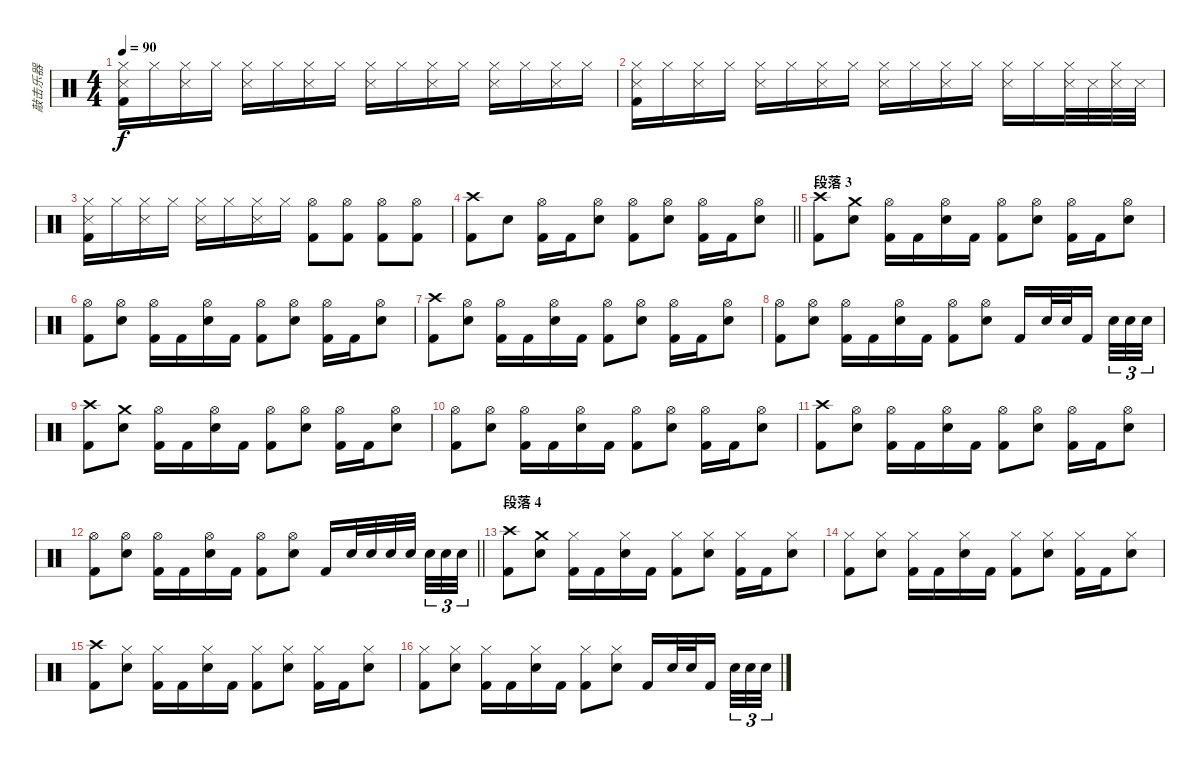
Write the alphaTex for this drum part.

\track ("敲击乐器" "敲击乐器") {instrument percussion}
\staff {score}
\articulation defaults
\ts (4 4)
\tempo 90
\clef neutral
\ks c
("Hi-Hat (closed)" "Snare (side stick) 3" "Kick (hit) 2").16{dy f} "Hi-Hat (closed)".16 ("Hi-Hat (closed)" "Snare (side stick) 3").16 "Hi-Hat (closed)".16 ("Hi-Hat (closed)" "Snare (side stick) 3").16 "Hi-Hat (closed)".16 ("Hi-Hat (closed)" "Snare (side stick) 3").16 "Hi-Hat (closed)".16 ("Hi-Hat (closed)" "Snare (side stick) 3").16 "Hi-Hat (closed)".16 ("Hi-Hat (closed)" "Snare (side stick) 3").16 "Hi-Hat (closed)".16 ("Hi-Hat (closed)" "Snare (side stick) 3").16 "Hi-Hat (closed)".16 ("Hi-Hat (closed)" "Snare (side stick) 3").16 "Hi-Hat (closed)".16 |
("Hi-Hat (closed)" "Snare (side stick) 3" "Kick (hit) 2").16 "Hi-Hat (closed)".16 ("Hi-Hat (closed)" "Snare (side stick) 3").16 "Hi-Hat (closed)".16 ("Hi-Hat (closed)" "Snare (side stick) 3").16 "Hi-Hat (closed)".16 ("Hi-Hat (closed)" "Snare (side stick) 3").16 "Hi-Hat (closed)".16 ("Hi-Hat (closed)" "Snare (side stick) 3").16 "Hi-Hat (closed)".16 ("Hi-Hat (closed)" "Snare (side stick) 3").16 "Hi-Hat (closed)".16 ("Hi-Hat (closed)" "Snare (side stick) 3").16 "Hi-Hat (closed)".16 ("Hi-Hat (closed)" "Snare (side stick) 3").32 "Snare (side stick) 3".32 ("Hi-Hat (closed)" "Snare (side stick) 3").32 "Snare (side stick) 3".32 |
("Hi-Hat (closed)" "Snare (side stick) 3" "Kick (hit) 2").16 "Hi-Hat (closed)".16 ("Hi-Hat (closed)" "Snare (side stick) 3").16 "Hi-Hat (closed)".16 ("Hi-Hat (closed)" "Snare (side stick) 3").16 "Hi-Hat (closed)".16 ("Hi-Hat (closed)" "Snare (side stick) 3").16 "Hi-Hat (closed)".16 ("Hi-Hat (open)" "Kick (hit) 2").8 ("Hi-Hat (open)" "Kick (hit) 2").8 ("Hi-Hat (open)" "Kick (hit) 2").8 ("Hi-Hat (open)" "Kick (hit) 2").8 |
\barLineRight lightlight
("Crash high (hit)" "Kick (hit) 2").8 "Snare (hit) 2".8 ("Hi-Hat (open)" "Kick (hit) 2").16 "Kick (hit) 2".16 ("Hi-Hat (open)" "Snare (hit) 2").8 ("Hi-Hat (open)" "Kick (hit) 2").8 ("Hi-Hat (open)" "Snare (hit) 2").8 ("Hi-Hat (open)" "Kick (hit) 2").16 "Kick (hit) 2".16 ("Hi-Hat (open)" "Snare (hit) 2").8 |
\section ("" "段落 3")
("Crash high (hit)" "Kick (hit) 2").8 ("Crash medium (hit)" "Snare (hit) 2").8 ("Hi-Hat (open)" "Kick (hit) 2").16 "Kick (hit) 2".16 ("Hi-Hat (open)" "Snare (hit) 2").16 "Kick (hit) 2".16 ("Hi-Hat (open)" "Kick (hit) 2").8 ("Hi-Hat (open)" "Snare (hit) 2").8 ("Hi-Hat (open)" "Kick (hit) 2").16 "Kick (hit) 2".16 ("Hi-Hat (open)" "Snare (hit) 2").8 |
("Hi-Hat (open)" "Kick (hit) 2").8 ("Hi-Hat (open)" "Snare (hit) 2").8 ("Hi-Hat (open)" "Kick (hit) 2").16 "Kick (hit) 2".16 ("Hi-Hat (open)" "Snare (hit) 2").16 "Kick (hit) 2".16 ("Hi-Hat (open)" "Kick (hit) 2").8 ("Hi-Hat (open)" "Snare (hit) 2").8 ("Hi-Hat (open)" "Kick (hit) 2").16 "Kick (hit) 2".16 ("Hi-Hat (open)" "Snare (hit) 2").8 |
("Crash high (hit)" "Kick (hit) 2").8 ("Hi-Hat (open)" "Snare (hit) 2").8 ("Hi-Hat (open)" "Kick (hit) 2").16 "Kick (hit) 2".16 ("Hi-Hat (open)" "Snare (hit) 2").16 "Kick (hit) 2".16 ("Hi-Hat (open)" "Kick (hit) 2").8 ("Hi-Hat (open)" "Snare (hit) 2").8 ("Hi-Hat (open)" "Kick (hit) 2").16 "Kick (hit) 2".16 ("Hi-Hat (open)" "Snare (hit) 2").8 |
("Hi-Hat (open)" "Kick (hit) 2").8 ("Hi-Hat (open)" "Snare (hit) 2").8 ("Hi-Hat (open)" "Kick (hit) 2").16 "Kick (hit) 2".16 ("Hi-Hat (open)" "Snare (hit) 2").16 "Kick (hit) 2".16 ("Hi-Hat (open)" "Kick (hit) 2").8 ("Hi-Hat (open)" "Snare (hit) 2").8 "Kick (hit) 2".16 "Snare (hit) 2".32 "Snare (hit) 2".32 "Kick (hit) 2".16{beam splitsecondary} "Snare (hit) 2".32{tu (3 2)} "Snare (hit) 2".32{tu (3 2)} "Snare (hit) 2".32{tu (3 2)} |
("Crash high (hit)" "Kick (hit) 2").8 ("Crash medium (hit)" "Snare (hit) 2").8 ("Hi-Hat (open)" "Kick (hit) 2").16 "Kick (hit) 2".16 ("Hi-Hat (open)" "Snare (hit) 2").16 "Kick (hit) 2".16 ("Hi-Hat (open)" "Kick (hit) 2").8 ("Hi-Hat (open)" "Snare (hit) 2").8 ("Hi-Hat (open)" "Kick (hit) 2").16 "Kick (hit) 2".16 ("Hi-Hat (open)" "Snare (hit) 2").8 |
("Hi-Hat (open)" "Kick (hit) 2").8 ("Hi-Hat (open)" "Snare (hit) 2").8 ("Hi-Hat (open)" "Kick (hit) 2").16 "Kick (hit) 2".16 ("Hi-Hat (open)" "Snare (hit) 2").16 "Kick (hit) 2".16 ("Hi-Hat (open)" "Kick (hit) 2").8 ("Hi-Hat (open)" "Snare (hit) 2").8 ("Hi-Hat (open)" "Kick (hit) 2").16 "Kick (hit) 2".16 ("Hi-Hat (open)" "Snare (hit) 2").8 |
("Crash high (hit)" "Kick (hit) 2").8 ("Hi-Hat (open)" "Snare (hit) 2").8 ("Hi-Hat (open)" "Kick (hit) 2").16 "Kick (hit) 2".16 ("Hi-Hat (open)" "Snare (hit) 2").16 "Kick (hit) 2".16 ("Hi-Hat (open)" "Kick (hit) 2").8 ("Hi-Hat (open)" "Snare (hit) 2").8 ("Hi-Hat (open)" "Kick (hit) 2").16 "Kick (hit) 2".16 ("Hi-Hat (open)" "Snare (hit) 2").8 |
\barLineRight lightlight
("Hi-Hat (open)" "Kick (hit) 2").8 ("Hi-Hat (open)" "Snare (hit) 2").8 ("Hi-Hat (open)" "Kick (hit) 2").16 "Kick (hit) 2".16 ("Hi-Hat (open)" "Snare (hit) 2").16 "Kick (hit) 2".16 ("Hi-Hat (open)" "Kick (hit) 2").8 ("Hi-Hat (open)" "Snare (hit) 2").8 "Kick (hit) 2".16 "Snare (hit) 2".32 "Snare (hit) 2".32 "Snare (hit) 2".32 "Snare (hit) 2".32{beam splitsecondary} "Snare (hit) 2".32{tu (3 2)} "Snare (hit) 2".32{tu (3 2)} "Snare (hit) 2".32{tu (3 2)} |
\section ("" "段落 4")
("Crash high (hit)" "Kick (hit) 2").8 ("Crash medium (hit)" "Snare (hit) 2").8 ("Hi-Hat (closed)" "Kick (hit) 2").16 "Kick (hit) 2".16 ("Hi-Hat (closed)" "Snare (hit) 2").16 "Kick (hit) 2".16 ("Hi-Hat (closed)" "Kick (hit) 2").8 ("Hi-Hat (closed)" "Snare (hit) 2").8 ("Hi-Hat (closed)" "Kick (hit) 2").16 "Kick (hit) 2".16 ("Hi-Hat (closed)" "Snare (hit) 2").8 |
("Hi-Hat (closed)" "Kick (hit) 2").8 ("Hi-Hat (closed)" "Snare (hit) 2").8 ("Hi-Hat (closed)" "Kick (hit) 2").16 "Kick (hit) 2".16 ("Hi-Hat (closed)" "Snare (hit) 2").16 "Kick (hit) 2".16 ("Hi-Hat (closed)" "Kick (hit) 2").8 ("Hi-Hat (closed)" "Snare (hit) 2").8 ("Hi-Hat (closed)" "Kick (hit) 2").16 "Kick (hit) 2".16 ("Hi-Hat (closed)" "Snare (hit) 2").8 |
("Crash high (hit)" "Kick (hit) 2").8 ("Hi-Hat (closed)" "Snare (hit) 2").8 ("Hi-Hat (closed)" "Kick (hit) 2").16 "Kick (hit) 2".16 ("Hi-Hat (closed)" "Snare (hit) 2").16 "Kick (hit) 2".16 ("Hi-Hat (closed)" "Kick (hit) 2").8 ("Hi-Hat (closed)" "Snare (hit) 2").8 ("Hi-Hat (closed)" "Kick (hit) 2").16 "Kick (hit) 2".16 ("Hi-Hat (closed)" "Snare (hit) 2").8 |
("Hi-Hat (closed)" "Kick (hit) 2").8 ("Hi-Hat (closed)" "Snare (hit) 2").8 ("Hi-Hat (closed)" "Kick (hit) 2").16 "Kick (hit) 2".16 ("Hi-Hat (closed)" "Snare (hit) 2").16 "Kick (hit) 2".16 ("Hi-Hat (closed)" "Kick (hit) 2").8 ("Hi-Hat (closed)" "Snare (hit) 2").8 "Kick (hit) 2".16 "Snare (hit) 2".32 "Snare (hit) 2".32 "Kick (hit) 2".16{beam splitsecondary} "Snare (hit) 2".32{tu (3 2)} "Snare (hit) 2".32{tu (3 2)} "Snare (hit) 2".32{tu (3 2)}
